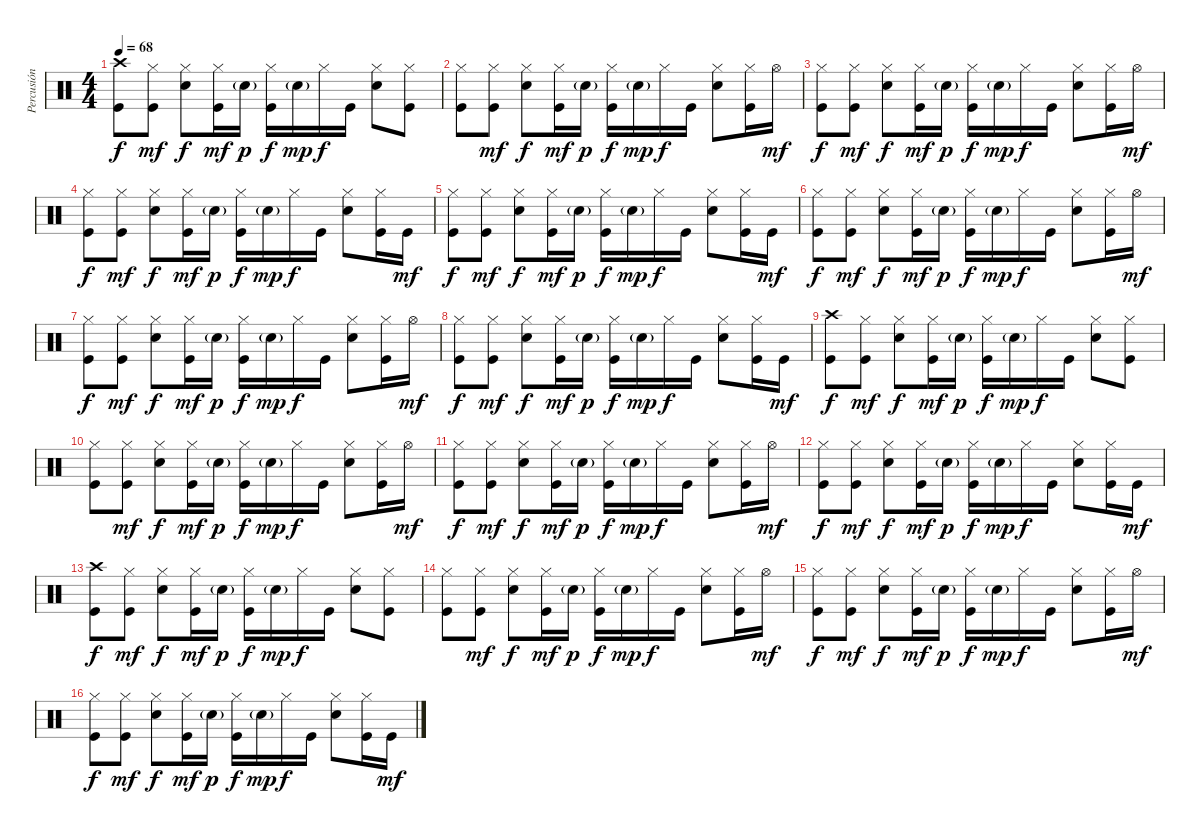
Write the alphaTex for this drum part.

\track ("Percusión" "Percusión") {instrument percussion}
\staff {score}
\articulation defaults
\ts (4 4)
\tempo 68
\clef neutral
\ks c
("Crash high (hit)" "Kick (hit)").8{dy f} ("Hi-Hat (closed)" "Kick (hit)").8{dy mf} ("Hi-Hat (closed)" "Snare (hit) 2").8{dy f} ("Hi-Hat (closed)" "Kick (hit)").16{dy mf} "Snare (hit) 2"{g}.16{dy p} ("Hi-Hat (closed)" "Kick (hit)").16{dy f} "Snare (hit) 2"{g}.16{dy mp} "Hi-Hat (closed)".16{dy f} "Kick (hit)".16 ("Hi-Hat (closed)" "Snare (hit) 2").8 ("Hi-Hat (closed)" "Kick (hit)").8 |
("Hi-Hat (closed)" "Kick (hit)").8 ("Hi-Hat (closed)" "Kick (hit)").8{dy mf} ("Hi-Hat (closed)" "Snare (hit) 2").8{dy f} ("Hi-Hat (closed)" "Kick (hit)").16{dy mf} "Snare (hit) 2"{g}.16{dy p} ("Hi-Hat (closed)" "Kick (hit)").16{dy f} "Snare (hit) 2"{g}.16{dy mp} "Hi-Hat (closed)".16{dy f} "Kick (hit)".16 ("Hi-Hat (closed)" "Snare (hit) 2").8 ("Hi-Hat (closed)" "Kick (hit)").16 "Hi-Hat (open)".16{dy mf} |
("Hi-Hat (closed)" "Kick (hit)").8{dy f} ("Hi-Hat (closed)" "Kick (hit)").8{dy mf} ("Hi-Hat (closed)" "Snare (hit) 2").8{dy f} ("Hi-Hat (closed)" "Kick (hit)").16{dy mf} "Snare (hit) 2"{g}.16{dy p} ("Hi-Hat (closed)" "Kick (hit)").16{dy f} "Snare (hit) 2"{g}.16{dy mp} "Hi-Hat (closed)".16{dy f} "Kick (hit)".16 ("Hi-Hat (closed)" "Snare (hit) 2").8 ("Hi-Hat (closed)" "Kick (hit)").16 "Hi-Hat (open)".16{dy mf} |
("Hi-Hat (closed)" "Kick (hit)").8{dy f} ("Hi-Hat (closed)" "Kick (hit)").8{dy mf} ("Hi-Hat (closed)" "Snare (hit) 2").8{dy f} ("Hi-Hat (closed)" "Kick (hit)").16{dy mf} "Snare (hit) 2"{g}.16{dy p} ("Hi-Hat (closed)" "Kick (hit)").16{dy f} "Snare (hit) 2"{g}.16{dy mp} "Hi-Hat (closed)".16{dy f} "Kick (hit)".16 ("Hi-Hat (closed)" "Snare (hit) 2").8 ("Hi-Hat (closed)" "Kick (hit)").16 "Kick (hit)".16{dy mf} |
("Hi-Hat (closed)" "Kick (hit)").8{dy f} ("Hi-Hat (closed)" "Kick (hit)").8{dy mf} ("Hi-Hat (closed)" "Snare (hit) 2").8{dy f} ("Hi-Hat (closed)" "Kick (hit)").16{dy mf} "Snare (hit) 2"{g}.16{dy p} ("Hi-Hat (closed)" "Kick (hit)").16{dy f} "Snare (hit) 2"{g}.16{dy mp} "Hi-Hat (closed)".16{dy f} "Kick (hit)".16 ("Hi-Hat (closed)" "Snare (hit) 2").8 ("Hi-Hat (closed)" "Kick (hit)").16 "Kick (hit)".16{dy mf} |
("Hi-Hat (closed)" "Kick (hit)").8{dy f} ("Hi-Hat (closed)" "Kick (hit)").8{dy mf} ("Hi-Hat (closed)" "Snare (hit) 2").8{dy f} ("Hi-Hat (closed)" "Kick (hit)").16{dy mf} "Snare (hit) 2"{g}.16{dy p} ("Hi-Hat (closed)" "Kick (hit)").16{dy f} "Snare (hit) 2"{g}.16{dy mp} "Hi-Hat (closed)".16{dy f} "Kick (hit)".16 ("Hi-Hat (closed)" "Snare (hit) 2").8 ("Hi-Hat (closed)" "Kick (hit)").16 "Hi-Hat (open)".16{dy mf} |
("Hi-Hat (closed)" "Kick (hit)").8{dy f} ("Hi-Hat (closed)" "Kick (hit)").8{dy mf} ("Hi-Hat (closed)" "Snare (hit) 2").8{dy f} ("Hi-Hat (closed)" "Kick (hit)").16{dy mf} "Snare (hit) 2"{g}.16{dy p} ("Hi-Hat (closed)" "Kick (hit)").16{dy f} "Snare (hit) 2"{g}.16{dy mp} "Hi-Hat (closed)".16{dy f} "Kick (hit)".16 ("Hi-Hat (closed)" "Snare (hit) 2").8 ("Hi-Hat (closed)" "Kick (hit)").16 "Hi-Hat (open)".16{dy mf} |
("Hi-Hat (closed)" "Kick (hit)").8{dy f} ("Hi-Hat (closed)" "Kick (hit)").8{dy mf} ("Hi-Hat (closed)" "Snare (hit) 2").8{dy f} ("Hi-Hat (closed)" "Kick (hit)").16{dy mf} "Snare (hit) 2"{g}.16{dy p} ("Hi-Hat (closed)" "Kick (hit)").16{dy f} "Snare (hit) 2"{g}.16{dy mp} "Hi-Hat (closed)".16{dy f} "Kick (hit)".16 ("Hi-Hat (closed)" "Snare (hit) 2").8 ("Hi-Hat (closed)" "Kick (hit)").16 "Kick (hit)".16{dy mf} |
("Crash high (hit)" "Kick (hit)").8{dy f} ("Hi-Hat (closed)" "Kick (hit)").8{dy mf} ("Hi-Hat (closed)" "Snare (hit) 2").8{dy f} ("Hi-Hat (closed)" "Kick (hit)").16{dy mf} "Snare (hit) 2"{g}.16{dy p} ("Hi-Hat (closed)" "Kick (hit)").16{dy f} "Snare (hit) 2"{g}.16{dy mp} "Hi-Hat (closed)".16{dy f} "Kick (hit)".16 ("Hi-Hat (closed)" "Snare (hit) 2").8 ("Hi-Hat (closed)" "Kick (hit)").8 |
("Hi-Hat (closed)" "Kick (hit)").8 ("Hi-Hat (closed)" "Kick (hit)").8{dy mf} ("Hi-Hat (closed)" "Snare (hit) 2").8{dy f} ("Hi-Hat (closed)" "Kick (hit)").16{dy mf} "Snare (hit) 2"{g}.16{dy p} ("Hi-Hat (closed)" "Kick (hit)").16{dy f} "Snare (hit) 2"{g}.16{dy mp} "Hi-Hat (closed)".16{dy f} "Kick (hit)".16 ("Hi-Hat (closed)" "Snare (hit) 2").8 ("Hi-Hat (closed)" "Kick (hit)").16 "Hi-Hat (open)".16{dy mf} |
("Hi-Hat (closed)" "Kick (hit)").8{dy f} ("Hi-Hat (closed)" "Kick (hit)").8{dy mf} ("Hi-Hat (closed)" "Snare (hit) 2").8{dy f} ("Hi-Hat (closed)" "Kick (hit)").16{dy mf} "Snare (hit) 2"{g}.16{dy p} ("Hi-Hat (closed)" "Kick (hit)").16{dy f} "Snare (hit) 2"{g}.16{dy mp} "Hi-Hat (closed)".16{dy f} "Kick (hit)".16 ("Hi-Hat (closed)" "Snare (hit) 2").8 ("Hi-Hat (closed)" "Kick (hit)").16 "Hi-Hat (open)".16{dy mf} |
("Hi-Hat (closed)" "Kick (hit)").8{dy f} ("Hi-Hat (closed)" "Kick (hit)").8{dy mf} ("Hi-Hat (closed)" "Snare (hit) 2").8{dy f} ("Hi-Hat (closed)" "Kick (hit)").16{dy mf} "Snare (hit) 2"{g}.16{dy p} ("Hi-Hat (closed)" "Kick (hit)").16{dy f} "Snare (hit) 2"{g}.16{dy mp} "Hi-Hat (closed)".16{dy f} "Kick (hit)".16 ("Hi-Hat (closed)" "Snare (hit) 2").8 ("Hi-Hat (closed)" "Kick (hit)").16 "Kick (hit)".16{dy mf} |
("Crash high (hit)" "Kick (hit)").8{dy f} ("Hi-Hat (closed)" "Kick (hit)").8{dy mf} ("Hi-Hat (closed)" "Snare (hit) 2").8{dy f} ("Hi-Hat (closed)" "Kick (hit)").16{dy mf} "Snare (hit) 2"{g}.16{dy p} ("Hi-Hat (closed)" "Kick (hit)").16{dy f} "Snare (hit) 2"{g}.16{dy mp} "Hi-Hat (closed)".16{dy f} "Kick (hit)".16 ("Hi-Hat (closed)" "Snare (hit) 2").8 ("Hi-Hat (closed)" "Kick (hit)").8 |
("Hi-Hat (closed)" "Kick (hit)").8 ("Hi-Hat (closed)" "Kick (hit)").8{dy mf} ("Hi-Hat (closed)" "Snare (hit) 2").8{dy f} ("Hi-Hat (closed)" "Kick (hit)").16{dy mf} "Snare (hit) 2"{g}.16{dy p} ("Hi-Hat (closed)" "Kick (hit)").16{dy f} "Snare (hit) 2"{g}.16{dy mp} "Hi-Hat (closed)".16{dy f} "Kick (hit)".16 ("Hi-Hat (closed)" "Snare (hit) 2").8 ("Hi-Hat (closed)" "Kick (hit)").16 "Hi-Hat (open)".16{dy mf} |
("Hi-Hat (closed)" "Kick (hit)").8{dy f} ("Hi-Hat (closed)" "Kick (hit)").8{dy mf} ("Hi-Hat (closed)" "Snare (hit) 2").8{dy f} ("Hi-Hat (closed)" "Kick (hit)").16{dy mf} "Snare (hit) 2"{g}.16{dy p} ("Hi-Hat (closed)" "Kick (hit)").16{dy f} "Snare (hit) 2"{g}.16{dy mp} "Hi-Hat (closed)".16{dy f} "Kick (hit)".16 ("Hi-Hat (closed)" "Snare (hit) 2").8 ("Hi-Hat (closed)" "Kick (hit)").16 "Hi-Hat (open)".16{dy mf} |
("Hi-Hat (closed)" "Kick (hit)").8{dy f} ("Hi-Hat (closed)" "Kick (hit)").8{dy mf} ("Hi-Hat (closed)" "Snare (hit) 2").8{dy f} ("Hi-Hat (closed)" "Kick (hit)").16{dy mf} "Snare (hit) 2"{g}.16{dy p} ("Hi-Hat (closed)" "Kick (hit)").16{dy f} "Snare (hit) 2"{g}.16{dy mp} "Hi-Hat (closed)".16{dy f} "Kick (hit)".16 ("Hi-Hat (closed)" "Snare (hit) 2").8 ("Hi-Hat (closed)" "Kick (hit)").16 "Kick (hit)".16{dy mf}
